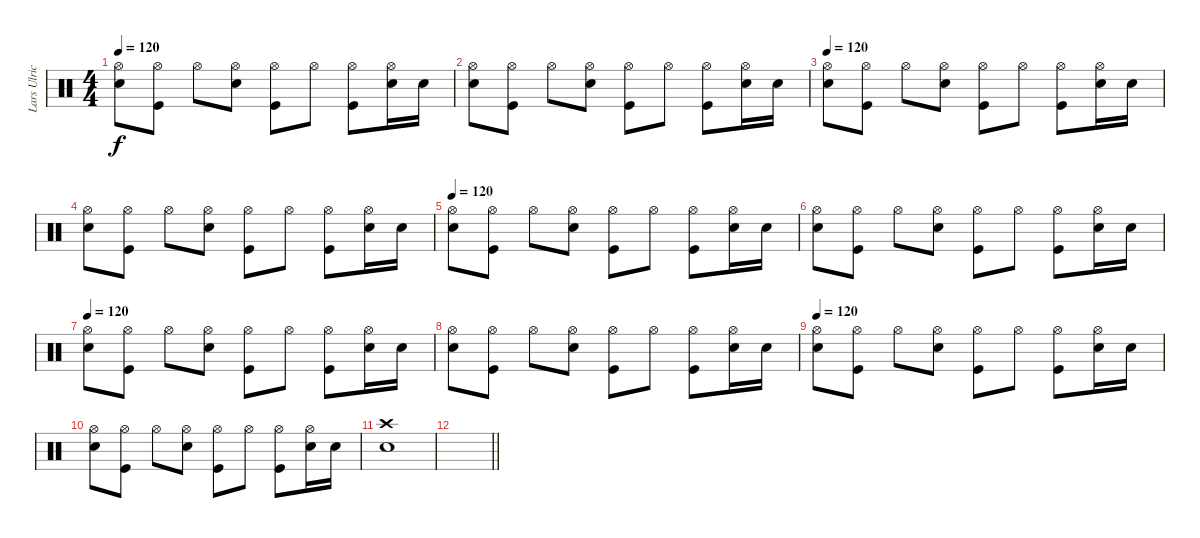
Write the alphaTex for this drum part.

\track ("Lars Ulrich Drums" "Lars Ulric") {instrument percussion}
\staff {score}
\articulation defaults
\ts (4 4)
\tempo 120
\clef neutral
\ks c
("Hi-Hat (open)" "Electric Snare (hit)").8{dy f} ("Hi-Hat (open)" "Kick (hit)").8 "Hi-Hat (open)".8 ("Hi-Hat (open)" "Electric Snare (hit)").8 ("Hi-Hat (open)" "Kick (hit)").8 "Hi-Hat (open)".8 ("Hi-Hat (open)" "Kick (hit)").8 ("Hi-Hat (open)" "Electric Snare (hit)").16 "Electric Snare (hit)".16 |
("Hi-Hat (open)" "Electric Snare (hit)").8 ("Hi-Hat (open)" "Kick (hit)").8 "Hi-Hat (open)".8 ("Hi-Hat (open)" "Electric Snare (hit)").8 ("Hi-Hat (open)" "Kick (hit)").8 "Hi-Hat (open)".8 ("Hi-Hat (open)" "Kick (hit)").8 ("Hi-Hat (open)" "Electric Snare (hit)").16 "Electric Snare (hit)".16 |
\tempo 120
("Hi-Hat (open)" "Electric Snare (hit)").8 ("Hi-Hat (open)" "Kick (hit)").8 "Hi-Hat (open)".8 ("Hi-Hat (open)" "Electric Snare (hit)").8 ("Hi-Hat (open)" "Kick (hit)").8 "Hi-Hat (open)".8 ("Hi-Hat (open)" "Kick (hit)").8 ("Hi-Hat (open)" "Electric Snare (hit)").16 "Electric Snare (hit)".16 |
("Hi-Hat (open)" "Electric Snare (hit)").8 ("Hi-Hat (open)" "Kick (hit)").8 "Hi-Hat (open)".8 ("Hi-Hat (open)" "Electric Snare (hit)").8 ("Hi-Hat (open)" "Kick (hit)").8 "Hi-Hat (open)".8 ("Hi-Hat (open)" "Kick (hit)").8 ("Hi-Hat (open)" "Electric Snare (hit)").16 "Electric Snare (hit)".16 |
\tempo 120
("Hi-Hat (open)" "Electric Snare (hit)").8 ("Hi-Hat (open)" "Kick (hit)").8 "Hi-Hat (open)".8 ("Hi-Hat (open)" "Electric Snare (hit)").8 ("Hi-Hat (open)" "Kick (hit)").8 "Hi-Hat (open)".8 ("Hi-Hat (open)" "Kick (hit)").8 ("Hi-Hat (open)" "Electric Snare (hit)").16 "Electric Snare (hit)".16 |
("Hi-Hat (open)" "Electric Snare (hit)").8 ("Hi-Hat (open)" "Kick (hit)").8 "Hi-Hat (open)".8 ("Hi-Hat (open)" "Electric Snare (hit)").8 ("Hi-Hat (open)" "Kick (hit)").8 "Hi-Hat (open)".8 ("Hi-Hat (open)" "Kick (hit)").8 ("Hi-Hat (open)" "Electric Snare (hit)").16 "Electric Snare (hit)".16 |
\tempo 120
("Hi-Hat (open)" "Electric Snare (hit)").8 ("Hi-Hat (open)" "Kick (hit)").8 "Hi-Hat (open)".8 ("Hi-Hat (open)" "Electric Snare (hit)").8 ("Hi-Hat (open)" "Kick (hit)").8 "Hi-Hat (open)".8 ("Hi-Hat (open)" "Kick (hit)").8 ("Hi-Hat (open)" "Electric Snare (hit)").16 "Electric Snare (hit)".16 |
("Hi-Hat (open)" "Electric Snare (hit)").8 ("Hi-Hat (open)" "Kick (hit)").8 "Hi-Hat (open)".8 ("Hi-Hat (open)" "Electric Snare (hit)").8 ("Hi-Hat (open)" "Kick (hit)").8 "Hi-Hat (open)".8 ("Hi-Hat (open)" "Kick (hit)").8 ("Hi-Hat (open)" "Electric Snare (hit)").16 "Electric Snare (hit)".16 |
\tempo 120
("Hi-Hat (open)" "Electric Snare (hit)").8 ("Hi-Hat (open)" "Kick (hit)").8 "Hi-Hat (open)".8 ("Hi-Hat (open)" "Electric Snare (hit)").8 ("Hi-Hat (open)" "Kick (hit)").8 "Hi-Hat (open)".8 ("Hi-Hat (open)" "Kick (hit)").8 ("Hi-Hat (open)" "Electric Snare (hit)").16 "Electric Snare (hit)".16 |
("Hi-Hat (open)" "Electric Snare (hit)").8 ("Hi-Hat (open)" "Kick (hit)").8 "Hi-Hat (open)".8 ("Hi-Hat (open)" "Electric Snare (hit)").8 ("Hi-Hat (open)" "Kick (hit)").8 "Hi-Hat (open)".8 ("Hi-Hat (open)" "Kick (hit)").8 ("Hi-Hat (open)" "Electric Snare (hit)").16 "Electric Snare (hit)".16 |
("Crash high (hit)" "Electric Snare (hit)").1 |
\barLineRight lightlight
